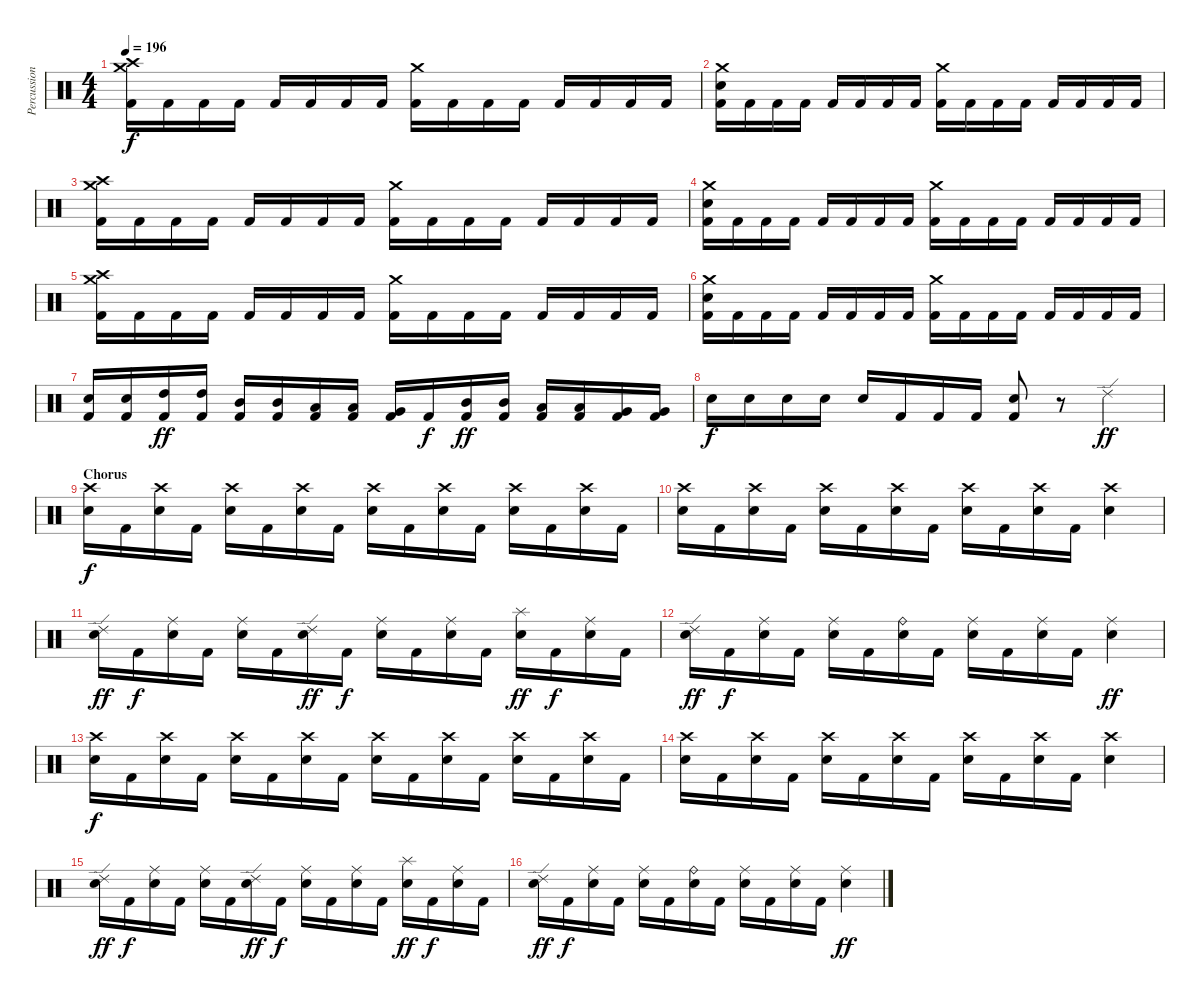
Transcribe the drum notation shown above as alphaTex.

\track ("Percussions" "Percussion") {instrument percussion}
\staff {score}
\articulation defaults
\ts (4 4)
\tempo 196
\clef neutral
\ks c
("Crash high (hit)" "Crash medium (hit)" "Kick (hit) 2").16{dy f} "Kick (hit) 2".16 "Kick (hit) 2".16 "Kick (hit) 2".16 "Kick (hit) 2".16 "Kick (hit) 2".16 "Kick (hit) 2".16 "Kick (hit) 2".16 ("Crash medium (hit)" "Kick (hit) 2").16 "Kick (hit) 2".16 "Kick (hit) 2".16 "Kick (hit) 2".16 "Kick (hit) 2".16 "Kick (hit) 2".16 "Kick (hit) 2".16 "Kick (hit) 2".16 |
("Crash medium (hit)" "Electric Snare (hit)" "Kick (hit) 2").16 "Kick (hit) 2".16 "Kick (hit) 2".16 "Kick (hit) 2".16 "Kick (hit) 2".16 "Kick (hit) 2".16 "Kick (hit) 2".16 "Kick (hit) 2".16 ("Crash medium (hit)" "Kick (hit) 2").16 "Kick (hit) 2".16 "Kick (hit) 2".16 "Kick (hit) 2".16 "Kick (hit) 2".16 "Kick (hit) 2".16 "Kick (hit) 2".16 "Kick (hit) 2".16 |
("Crash high (hit)" "Crash medium (hit)" "Kick (hit) 2").16 "Kick (hit) 2".16 "Kick (hit) 2".16 "Kick (hit) 2".16 "Kick (hit) 2".16 "Kick (hit) 2".16 "Kick (hit) 2".16 "Kick (hit) 2".16 ("Crash medium (hit)" "Kick (hit) 2").16 "Kick (hit) 2".16 "Kick (hit) 2".16 "Kick (hit) 2".16 "Kick (hit) 2".16 "Kick (hit) 2".16 "Kick (hit) 2".16 "Kick (hit) 2".16 |
("Crash medium (hit)" "Electric Snare (hit)" "Kick (hit) 2").16 "Kick (hit) 2".16 "Kick (hit) 2".16 "Kick (hit) 2".16 "Kick (hit) 2".16 "Kick (hit) 2".16 "Kick (hit) 2".16 "Kick (hit) 2".16 ("Crash medium (hit)" "Kick (hit) 2").16 "Kick (hit) 2".16 "Kick (hit) 2".16 "Kick (hit) 2".16 "Kick (hit) 2".16 "Kick (hit) 2".16 "Kick (hit) 2".16 "Kick (hit) 2".16 |
("Crash high (hit)" "Crash medium (hit)" "Kick (hit) 2").16 "Kick (hit) 2".16 "Kick (hit) 2".16 "Kick (hit) 2".16 "Kick (hit) 2".16 "Kick (hit) 2".16 "Kick (hit) 2".16 "Kick (hit) 2".16 ("Crash medium (hit)" "Kick (hit) 2").16 "Kick (hit) 2".16 "Kick (hit) 2".16 "Kick (hit) 2".16 "Kick (hit) 2".16 "Kick (hit) 2".16 "Kick (hit) 2".16 "Kick (hit) 2".16 |
("Crash medium (hit)" "Electric Snare (hit)" "Kick (hit) 2").16 "Kick (hit) 2".16 "Kick (hit) 2".16 "Kick (hit) 2".16 "Kick (hit) 2".16 "Kick (hit) 2".16 "Kick (hit) 2".16 "Kick (hit) 2".16 ("Crash medium (hit)" "Kick (hit) 2").16 "Kick (hit) 2".16 "Kick (hit) 2".16 "Kick (hit) 2".16 "Kick (hit) 2".16 "Kick (hit) 2".16 "Kick (hit) 2".16 "Kick (hit) 2".16 |
("Electric Snare (hit)" "Kick (hit) 2").16 ("Electric Snare (hit)" "Kick (hit) 2").16 ("High Tom (hit)" "Kick (hit) 2").16{dy ff} ("High Tom (hit)" "Kick (hit) 2").16 ("Mid Tom (hit)" "Kick (hit) 2").16 ("Mid Tom (hit)" "Kick (hit) 2").16 ("Low Tom (hit)" "Kick (hit) 2").16 ("Low Tom (hit)" "Kick (hit) 2").16 ("Very Low Tom (hit)" "Kick (hit) 2").16 "Kick (hit) 2".16{dy f} ("Mid Tom (hit)" "Kick (hit) 2").16{dy ff} ("Mid Tom (hit)" "Kick (hit) 2").16 ("Low Tom (hit)" "Kick (hit) 2").16 ("Low Tom (hit)" "Kick (hit) 2").16 ("Very Low Tom (hit)" "Kick (hit) 2").16 ("Very Low Tom (hit)" "Kick (hit) 2").16 |
"Electric Snare (hit)".16{dy f} "Electric Snare (hit)".16 "Electric Snare (hit)".16 "Electric Snare (hit)".16 "Electric Snare (hit)".16 "Kick (hit) 2".16 "Kick (hit) 2".16 "Kick (hit) 2".16 ("Electric Snare (hit)" "Kick (hit) 2").8 r.8 "Ride (edge) 2".4{dy ff} |
\section ("" "Chorus")
("Crash high (hit)" "Electric Snare (hit)").16{dy f} "Kick (hit) 2".16 ("Crash high (hit)" "Electric Snare (hit)").16 "Kick (hit) 2".16 ("Crash high (hit)" "Electric Snare (hit)").16 "Kick (hit) 2".16 ("Crash high (hit)" "Electric Snare (hit)").16 "Kick (hit) 2".16 ("Crash high (hit)" "Electric Snare (hit)").16 "Kick (hit) 2".16 ("Crash high (hit)" "Electric Snare (hit)").16 "Kick (hit) 2".16 ("Crash high (hit)" "Electric Snare (hit)").16 "Kick (hit) 2".16 ("Crash high (hit)" "Electric Snare (hit)").16 "Kick (hit) 2".16 |
("Crash high (hit)" "Electric Snare (hit)").16 "Kick (hit) 2".16 ("Crash high (hit)" "Electric Snare (hit)").16 "Kick (hit) 2".16 ("Crash high (hit)" "Electric Snare (hit)").16 "Kick (hit) 2".16 ("Crash high (hit)" "Electric Snare (hit)").16 "Kick (hit) 2".16 ("Crash high (hit)" "Electric Snare (hit)").16 "Kick (hit) 2".16 ("Crash high (hit)" "Electric Snare (hit)").16 "Kick (hit) 2".16 ("Crash high (hit)" "Electric Snare (hit)").4 |
("Ride (edge) 2" "Electric Snare (hit)").16{dy ff} "Kick (hit) 2".16{dy f} ("Ride (middle)" "Electric Snare (hit)").16 "Kick (hit) 2".16 ("Ride (middle)" "Electric Snare (hit)").16 "Kick (hit) 2".16 ("Ride (edge) 2" "Electric Snare (hit)").16{dy ff} "Kick (hit) 2".16{dy f} ("Ride (middle)" "Electric Snare (hit)").16 "Kick (hit) 2".16 ("Ride (middle)" "Electric Snare (hit)").16 "Kick (hit) 2".16 ("Splash (hit)" "Electric Snare (hit)").16{dy ff} "Kick (hit) 2".16{dy f} ("Ride (middle)" "Electric Snare (hit)").16 "Kick (hit) 2".16 |
("Ride (edge) 2" "Electric Snare (hit)").16{dy ff} "Kick (hit) 2".16{dy f} ("Ride (middle)" "Electric Snare (hit)").16 "Kick (hit) 2".16 ("Ride (middle)" "Electric Snare (hit)").16 "Kick (hit) 2".16 ("Ride (bell)" "Electric Snare (hit)").16 "Kick (hit) 2".16 ("Ride (middle)" "Electric Snare (hit)").16 "Kick (hit) 2".16 ("Ride (middle)" "Electric Snare (hit)").16 "Kick (hit) 2".16 ("Ride (middle)" "Electric Snare (hit)").4{dy ff} |
("Crash high (hit)" "Electric Snare (hit)").16{dy f} "Kick (hit) 2".16 ("Crash high (hit)" "Electric Snare (hit)").16 "Kick (hit) 2".16 ("Crash high (hit)" "Electric Snare (hit)").16 "Kick (hit) 2".16 ("Crash high (hit)" "Electric Snare (hit)").16 "Kick (hit) 2".16 ("Crash high (hit)" "Electric Snare (hit)").16 "Kick (hit) 2".16 ("Crash high (hit)" "Electric Snare (hit)").16 "Kick (hit) 2".16 ("Crash high (hit)" "Electric Snare (hit)").16 "Kick (hit) 2".16 ("Crash high (hit)" "Electric Snare (hit)").16 "Kick (hit) 2".16 |
("Crash high (hit)" "Electric Snare (hit)").16 "Kick (hit) 2".16 ("Crash high (hit)" "Electric Snare (hit)").16 "Kick (hit) 2".16 ("Crash high (hit)" "Electric Snare (hit)").16 "Kick (hit) 2".16 ("Crash high (hit)" "Electric Snare (hit)").16 "Kick (hit) 2".16 ("Crash high (hit)" "Electric Snare (hit)").16 "Kick (hit) 2".16 ("Crash high (hit)" "Electric Snare (hit)").16 "Kick (hit) 2".16 ("Crash high (hit)" "Electric Snare (hit)").4 |
("Ride (edge) 2" "Electric Snare (hit)").16{dy ff} "Kick (hit) 2".16{dy f} ("Ride (middle)" "Electric Snare (hit)").16 "Kick (hit) 2".16 ("Ride (middle)" "Electric Snare (hit)").16 "Kick (hit) 2".16 ("Ride (edge) 2" "Electric Snare (hit)").16{dy ff} "Kick (hit) 2".16{dy f} ("Ride (middle)" "Electric Snare (hit)").16 "Kick (hit) 2".16 ("Ride (middle)" "Electric Snare (hit)").16 "Kick (hit) 2".16 ("Splash (hit)" "Electric Snare (hit)").16{dy ff} "Kick (hit) 2".16{dy f} ("Ride (middle)" "Electric Snare (hit)").16 "Kick (hit) 2".16 |
("Ride (edge) 2" "Electric Snare (hit)").16{dy ff} "Kick (hit) 2".16{dy f} ("Ride (middle)" "Electric Snare (hit)").16 "Kick (hit) 2".16 ("Ride (middle)" "Electric Snare (hit)").16 "Kick (hit) 2".16 ("Ride (bell)" "Electric Snare (hit)").16 "Kick (hit) 2".16 ("Ride (middle)" "Electric Snare (hit)").16 "Kick (hit) 2".16 ("Ride (middle)" "Electric Snare (hit)").16 "Kick (hit) 2".16 ("Ride (middle)" "Electric Snare (hit)").4{dy ff}
